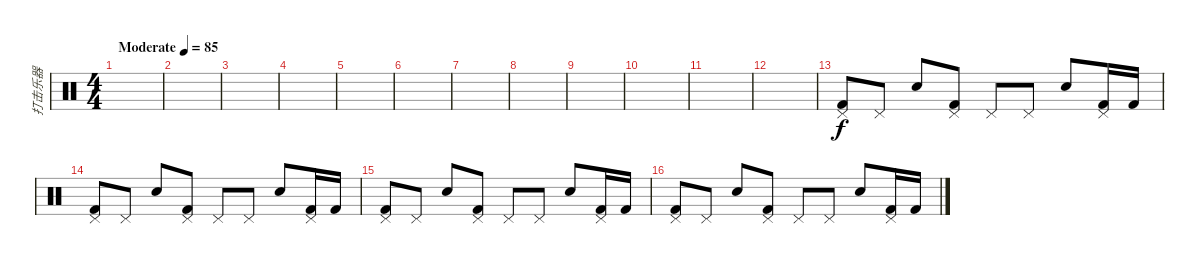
\track ("打击乐器" "打击乐器") {instrument percussion}
\staff {score}
\articulation defaults
\ts (4 4)
\tempo (85 "Moderate")
\clef neutral
\ks c
|
|
|
|
|
|
|
|
|
|
|
|
("Pedal Hi-Hat (hit)" "Kick (hit) 2").8 "Pedal Hi-Hat (hit)".8 "Electric Snare (hit)".8 ("Pedal Hi-Hat (hit)" "Kick (hit) 2").8 "Pedal Hi-Hat (hit)".8 "Pedal Hi-Hat (hit)".8 "Electric Snare (hit)".8 ("Pedal Hi-Hat (hit)" "Kick (hit) 2").16 "Kick (hit) 2".16 |
("Pedal Hi-Hat (hit)" "Kick (hit) 2").8 "Pedal Hi-Hat (hit)".8 "Electric Snare (hit)".8 ("Pedal Hi-Hat (hit)" "Kick (hit) 2").8 "Pedal Hi-Hat (hit)".8 "Pedal Hi-Hat (hit)".8 "Electric Snare (hit)".8 ("Pedal Hi-Hat (hit)" "Kick (hit) 2").16 "Kick (hit) 2".16 |
("Pedal Hi-Hat (hit)" "Kick (hit) 2").8 "Pedal Hi-Hat (hit)".8 "Electric Snare (hit)".8 ("Pedal Hi-Hat (hit)" "Kick (hit) 2").8 "Pedal Hi-Hat (hit)".8 "Pedal Hi-Hat (hit)".8 "Electric Snare (hit)".8 ("Pedal Hi-Hat (hit)" "Kick (hit) 2").16 "Kick (hit) 2".16 |
("Pedal Hi-Hat (hit)" "Kick (hit) 2").8 "Pedal Hi-Hat (hit)".8 "Electric Snare (hit)".8 ("Pedal Hi-Hat (hit)" "Kick (hit) 2").8 "Pedal Hi-Hat (hit)".8 "Pedal Hi-Hat (hit)".8 "Electric Snare (hit)".8 ("Pedal Hi-Hat (hit)" "Kick (hit) 2").16 "Kick (hit) 2".16
